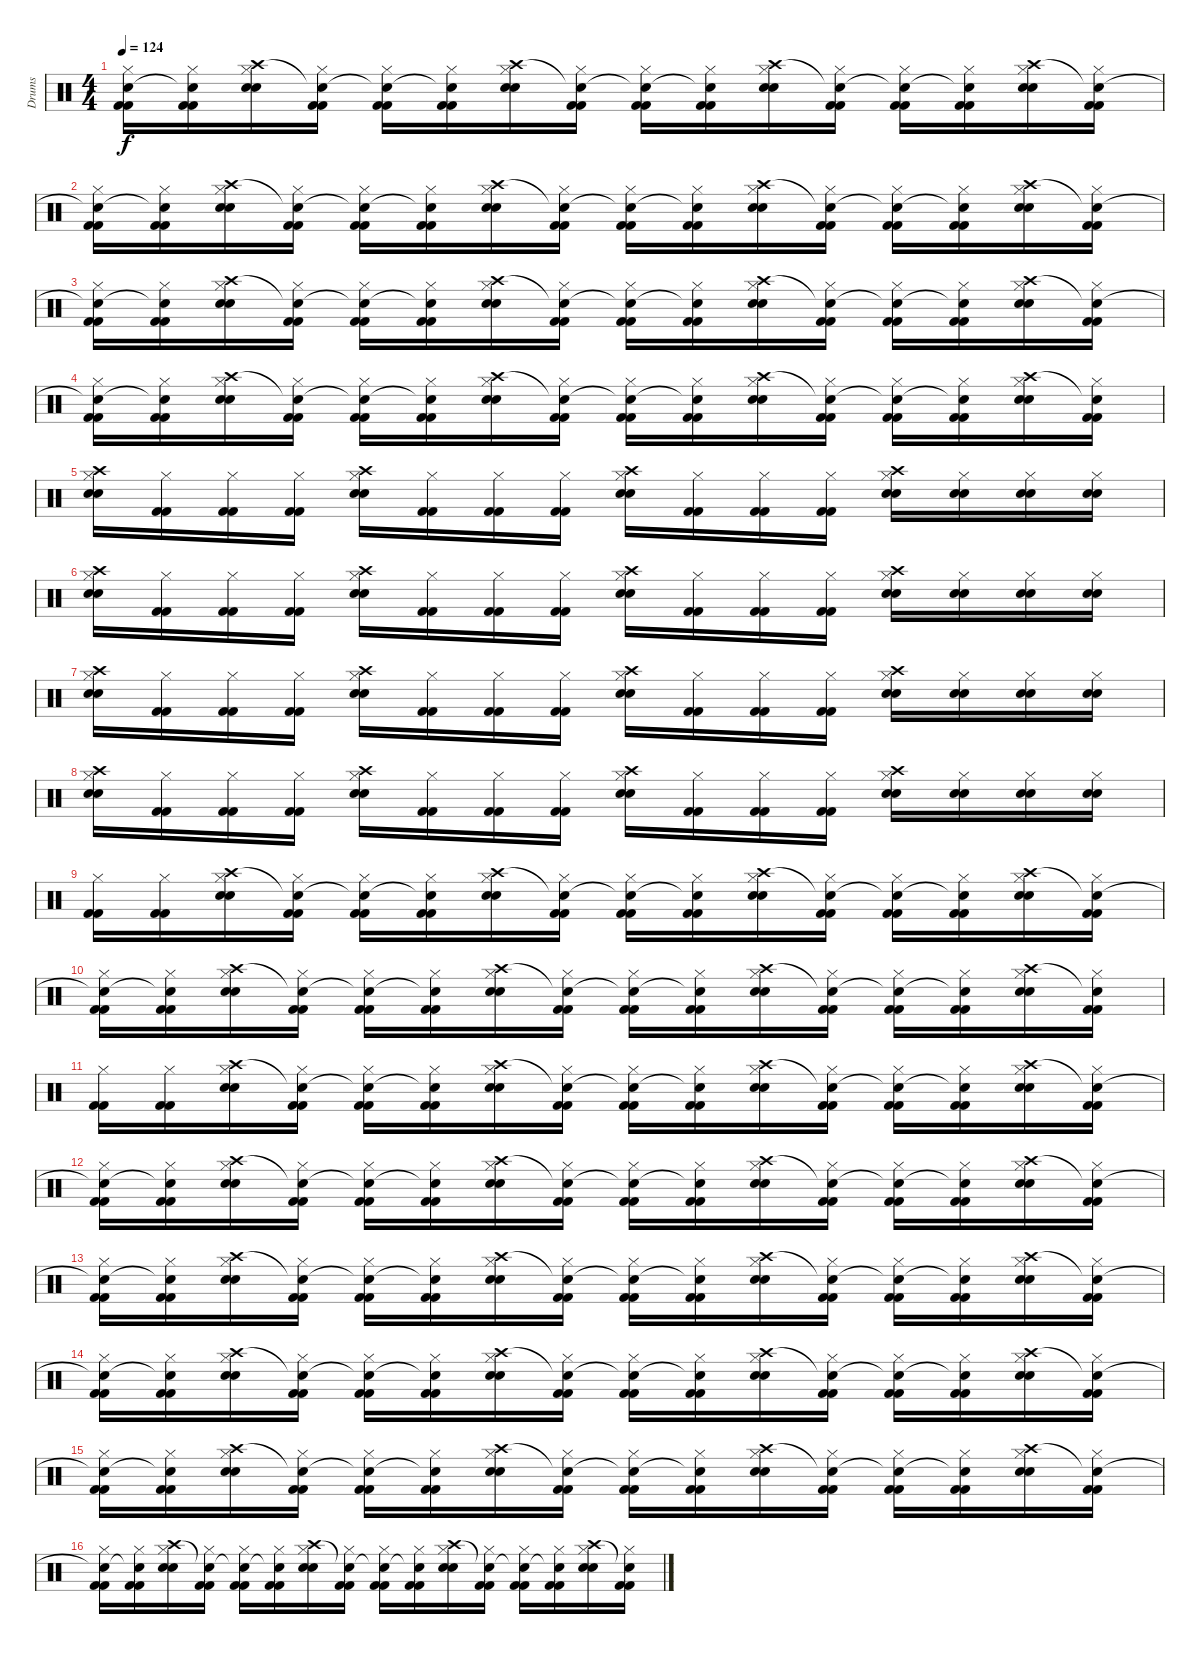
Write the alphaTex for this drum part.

\track ("Drums" "Drums") {instrument percussion}
\staff {score}
\articulation defaults
\ts (4 4)
\tempo 124
\clef neutral
\ks c
("Snare (hit)"{t} "Hi-Hat (closed)" "Kick (hit) 2" "Kick (hit) 2").16{dy f} ("Snare (hit)"{t} "Hi-Hat (closed)" "Kick (hit) 2" "Kick (hit) 2").16 ("Crash high (hit)" "Hi-Hat (closed)" "Snare (hit) 2" "Snare (hit) 2").16 ("Snare (hit)"{t} "Hi-Hat (closed)" "Kick (hit) 2" "Kick (hit) 2").16 ("Snare (hit)"{t} "Hi-Hat (closed)" "Kick (hit) 2" "Kick (hit) 2").16 ("Snare (hit)"{t} "Hi-Hat (closed)" "Kick (hit) 2" "Kick (hit) 2").16 ("Crash high (hit)" "Hi-Hat (closed)" "Snare (hit) 2" "Snare (hit) 2").16 ("Snare (hit)"{t} "Hi-Hat (closed)" "Kick (hit) 2" "Kick (hit) 2").16 ("Snare (hit)"{t} "Hi-Hat (closed)" "Kick (hit) 2" "Kick (hit) 2").16 ("Snare (hit)"{t} "Hi-Hat (closed)" "Kick (hit) 2" "Kick (hit) 2").16 ("Crash high (hit)" "Hi-Hat (closed)" "Snare (hit) 2" "Snare (hit) 2").16 ("Snare (hit)"{t} "Hi-Hat (closed)" "Kick (hit) 2" "Kick (hit) 2").16 ("Snare (hit)"{t} "Hi-Hat (closed)" "Kick (hit) 2" "Kick (hit) 2").16 ("Snare (hit)"{t} "Hi-Hat (closed)" "Kick (hit) 2" "Kick (hit) 2").16 ("Crash high (hit)" "Hi-Hat (closed)" "Snare (hit) 2" "Snare (hit) 2").16 ("Snare (hit)"{t} "Hi-Hat (closed)" "Kick (hit) 2" "Kick (hit) 2").16 |
("Snare (hit)"{t} "Hi-Hat (closed)" "Kick (hit) 2" "Kick (hit) 2").16 ("Snare (hit)"{t} "Hi-Hat (closed)" "Kick (hit) 2" "Kick (hit) 2").16 ("Crash high (hit)" "Hi-Hat (closed)" "Snare (hit) 2" "Snare (hit) 2").16 ("Snare (hit)"{t} "Hi-Hat (closed)" "Kick (hit) 2" "Kick (hit) 2").16 ("Snare (hit)"{t} "Hi-Hat (closed)" "Kick (hit) 2" "Kick (hit) 2").16 ("Snare (hit)"{t} "Hi-Hat (closed)" "Kick (hit) 2" "Kick (hit) 2").16 ("Crash high (hit)" "Hi-Hat (closed)" "Snare (hit) 2" "Snare (hit) 2").16 ("Snare (hit)"{t} "Hi-Hat (closed)" "Kick (hit) 2" "Kick (hit) 2").16 ("Snare (hit)"{t} "Hi-Hat (closed)" "Kick (hit) 2" "Kick (hit) 2").16 ("Snare (hit)"{t} "Hi-Hat (closed)" "Kick (hit) 2" "Kick (hit) 2").16 ("Crash high (hit)" "Hi-Hat (closed)" "Snare (hit) 2" "Snare (hit) 2").16 ("Snare (hit)"{t} "Hi-Hat (closed)" "Kick (hit) 2" "Kick (hit) 2").16 ("Snare (hit)"{t} "Hi-Hat (closed)" "Kick (hit) 2" "Kick (hit) 2").16 ("Snare (hit)"{t} "Hi-Hat (closed)" "Kick (hit) 2" "Kick (hit) 2").16 ("Crash high (hit)" "Hi-Hat (closed)" "Snare (hit) 2" "Snare (hit) 2").16 ("Snare (hit)"{t} "Hi-Hat (closed)" "Kick (hit) 2" "Kick (hit) 2").16 |
("Snare (hit)"{t} "Hi-Hat (closed)" "Kick (hit) 2" "Kick (hit) 2").16 ("Snare (hit)"{t} "Hi-Hat (closed)" "Kick (hit) 2" "Kick (hit) 2").16 ("Crash high (hit)" "Hi-Hat (closed)" "Snare (hit) 2" "Snare (hit) 2").16 ("Snare (hit)"{t} "Hi-Hat (closed)" "Kick (hit) 2" "Kick (hit) 2").16 ("Snare (hit)"{t} "Hi-Hat (closed)" "Kick (hit) 2" "Kick (hit) 2").16 ("Snare (hit)"{t} "Hi-Hat (closed)" "Kick (hit) 2" "Kick (hit) 2").16 ("Crash high (hit)" "Hi-Hat (closed)" "Snare (hit) 2" "Snare (hit) 2").16 ("Snare (hit)"{t} "Hi-Hat (closed)" "Kick (hit) 2" "Kick (hit) 2").16 ("Snare (hit)"{t} "Hi-Hat (closed)" "Kick (hit) 2" "Kick (hit) 2").16 ("Snare (hit)"{t} "Hi-Hat (closed)" "Kick (hit) 2" "Kick (hit) 2").16 ("Crash high (hit)" "Hi-Hat (closed)" "Snare (hit) 2" "Snare (hit) 2").16 ("Snare (hit)"{t} "Hi-Hat (closed)" "Kick (hit) 2" "Kick (hit) 2").16 ("Snare (hit)"{t} "Hi-Hat (closed)" "Kick (hit) 2" "Kick (hit) 2").16 ("Snare (hit)"{t} "Hi-Hat (closed)" "Kick (hit) 2" "Kick (hit) 2").16 ("Crash high (hit)" "Hi-Hat (closed)" "Snare (hit) 2" "Snare (hit) 2").16 ("Snare (hit)"{t} "Hi-Hat (closed)" "Kick (hit) 2" "Kick (hit) 2").16 |
("Snare (hit)"{t} "Hi-Hat (closed)" "Kick (hit) 2" "Kick (hit) 2").16 ("Snare (hit)"{t} "Hi-Hat (closed)" "Kick (hit) 2" "Kick (hit) 2").16 ("Crash high (hit)" "Hi-Hat (closed)" "Snare (hit) 2" "Snare (hit) 2").16 ("Snare (hit)"{t} "Hi-Hat (closed)" "Kick (hit) 2" "Kick (hit) 2").16 ("Snare (hit)"{t} "Hi-Hat (closed)" "Kick (hit) 2" "Kick (hit) 2").16 ("Snare (hit)"{t} "Hi-Hat (closed)" "Kick (hit) 2" "Kick (hit) 2").16 ("Crash high (hit)" "Hi-Hat (closed)" "Snare (hit) 2" "Snare (hit) 2").16 ("Snare (hit)"{t} "Hi-Hat (closed)" "Kick (hit) 2" "Kick (hit) 2").16 ("Snare (hit)"{t} "Hi-Hat (closed)" "Kick (hit) 2" "Kick (hit) 2").16 ("Snare (hit)"{t} "Hi-Hat (closed)" "Kick (hit) 2" "Kick (hit) 2").16 ("Crash high (hit)" "Hi-Hat (closed)" "Snare (hit) 2" "Snare (hit) 2").16 ("Snare (hit)"{t} "Hi-Hat (closed)" "Kick (hit) 2" "Kick (hit) 2").16 ("Snare (hit)"{t} "Hi-Hat (closed)" "Kick (hit) 2" "Kick (hit) 2").16 ("Snare (hit)"{t} "Hi-Hat (closed)" "Kick (hit) 2" "Kick (hit) 2").16 ("Crash high (hit)" "Hi-Hat (closed)" "Snare (hit) 2" "Snare (hit) 2").16 ("Snare (hit)"{t} "Hi-Hat (closed)" "Kick (hit) 2" "Kick (hit) 2").16 |
("Crash high (hit)" "Hi-Hat (closed)" "Snare (hit) 2" "Snare (hit) 2").16 ("Hi-Hat (closed)" "Kick (hit) 2" "Kick (hit) 2").16 ("Hi-Hat (closed)" "Kick (hit) 2" "Kick (hit) 2").16 ("Hi-Hat (closed)" "Kick (hit) 2" "Kick (hit) 2").16 ("Crash high (hit)" "Hi-Hat (closed)" "Snare (hit) 2" "Snare (hit) 2").16 ("Hi-Hat (closed)" "Kick (hit) 2" "Kick (hit) 2").16 ("Hi-Hat (closed)" "Kick (hit) 2" "Kick (hit) 2").16 ("Hi-Hat (closed)" "Kick (hit) 2" "Kick (hit) 2").16 ("Crash high (hit)" "Hi-Hat (closed)" "Snare (hit) 2" "Snare (hit) 2").16 ("Hi-Hat (closed)" "Kick (hit) 2" "Kick (hit) 2").16 ("Hi-Hat (closed)" "Kick (hit) 2" "Kick (hit) 2").16 ("Hi-Hat (closed)" "Kick (hit) 2" "Kick (hit) 2").16 ("Crash high (hit)" "Hi-Hat (closed)" "Snare (hit) 2" "Snare (hit) 2").16 ("Hi-Hat (closed)" "Snare (hit) 2" "Snare (hit) 2").16 ("Hi-Hat (closed)" "Snare (hit) 2" "Snare (hit) 2").16 ("Hi-Hat (closed)" "Snare (hit) 2" "Snare (hit) 2").16 |
("Crash high (hit)" "Hi-Hat (closed)" "Snare (hit) 2" "Snare (hit) 2").16 ("Hi-Hat (closed)" "Kick (hit) 2" "Kick (hit) 2").16 ("Hi-Hat (closed)" "Kick (hit) 2" "Kick (hit) 2").16 ("Hi-Hat (closed)" "Kick (hit) 2" "Kick (hit) 2").16 ("Crash high (hit)" "Hi-Hat (closed)" "Snare (hit) 2" "Snare (hit) 2").16 ("Hi-Hat (closed)" "Kick (hit) 2" "Kick (hit) 2").16 ("Hi-Hat (closed)" "Kick (hit) 2" "Kick (hit) 2").16 ("Hi-Hat (closed)" "Kick (hit) 2" "Kick (hit) 2").16 ("Crash high (hit)" "Hi-Hat (closed)" "Snare (hit) 2" "Snare (hit) 2").16 ("Hi-Hat (closed)" "Kick (hit) 2" "Kick (hit) 2").16 ("Hi-Hat (closed)" "Kick (hit) 2" "Kick (hit) 2").16 ("Hi-Hat (closed)" "Kick (hit) 2" "Kick (hit) 2").16 ("Crash high (hit)" "Hi-Hat (closed)" "Snare (hit) 2" "Snare (hit) 2").16 ("Hi-Hat (closed)" "Snare (hit) 2" "Snare (hit) 2").16 ("Hi-Hat (closed)" "Snare (hit) 2" "Snare (hit) 2").16 ("Hi-Hat (closed)" "Snare (hit) 2" "Snare (hit) 2").16 |
("Crash high (hit)" "Hi-Hat (closed)" "Snare (hit) 2" "Snare (hit) 2").16 ("Hi-Hat (closed)" "Kick (hit) 2" "Kick (hit) 2").16 ("Hi-Hat (closed)" "Kick (hit) 2" "Kick (hit) 2").16 ("Hi-Hat (closed)" "Kick (hit) 2" "Kick (hit) 2").16 ("Crash high (hit)" "Hi-Hat (closed)" "Snare (hit) 2" "Snare (hit) 2").16 ("Hi-Hat (closed)" "Kick (hit) 2" "Kick (hit) 2").16 ("Hi-Hat (closed)" "Kick (hit) 2" "Kick (hit) 2").16 ("Hi-Hat (closed)" "Kick (hit) 2" "Kick (hit) 2").16 ("Crash high (hit)" "Hi-Hat (closed)" "Snare (hit) 2" "Snare (hit) 2").16 ("Hi-Hat (closed)" "Kick (hit) 2" "Kick (hit) 2").16 ("Hi-Hat (closed)" "Kick (hit) 2" "Kick (hit) 2").16 ("Hi-Hat (closed)" "Kick (hit) 2" "Kick (hit) 2").16 ("Crash high (hit)" "Hi-Hat (closed)" "Snare (hit) 2" "Snare (hit) 2").16 ("Hi-Hat (closed)" "Snare (hit) 2" "Snare (hit) 2").16 ("Hi-Hat (closed)" "Snare (hit) 2" "Snare (hit) 2").16 ("Hi-Hat (closed)" "Snare (hit) 2" "Snare (hit) 2").16 |
("Crash high (hit)" "Hi-Hat (closed)" "Snare (hit) 2" "Snare (hit) 2").16 ("Hi-Hat (closed)" "Kick (hit) 2" "Kick (hit) 2").16 ("Hi-Hat (closed)" "Kick (hit) 2" "Kick (hit) 2").16 ("Hi-Hat (closed)" "Kick (hit) 2" "Kick (hit) 2").16 ("Crash high (hit)" "Hi-Hat (closed)" "Snare (hit) 2" "Snare (hit) 2").16 ("Hi-Hat (closed)" "Kick (hit) 2" "Kick (hit) 2").16 ("Hi-Hat (closed)" "Kick (hit) 2" "Kick (hit) 2").16 ("Hi-Hat (closed)" "Kick (hit) 2" "Kick (hit) 2").16 ("Crash high (hit)" "Hi-Hat (closed)" "Snare (hit) 2" "Snare (hit) 2").16 ("Hi-Hat (closed)" "Kick (hit) 2" "Kick (hit) 2").16 ("Hi-Hat (closed)" "Kick (hit) 2" "Kick (hit) 2").16 ("Hi-Hat (closed)" "Kick (hit) 2" "Kick (hit) 2").16 ("Crash high (hit)" "Hi-Hat (closed)" "Snare (hit) 2" "Snare (hit) 2").16 ("Hi-Hat (closed)" "Snare (hit) 2" "Snare (hit) 2").16 ("Hi-Hat (closed)" "Snare (hit) 2" "Snare (hit) 2").16 ("Hi-Hat (closed)" "Snare (hit) 2" "Snare (hit) 2").16 |
("Hi-Hat (closed)" "Kick (hit) 2" "Kick (hit) 2").16 ("Hi-Hat (closed)" "Kick (hit) 2" "Kick (hit) 2").16 ("Crash high (hit)" "Hi-Hat (closed)" "Snare (hit) 2" "Snare (hit) 2").16 ("Snare (hit)"{t} "Hi-Hat (closed)" "Kick (hit) 2" "Kick (hit) 2").16 ("Snare (hit)"{t} "Hi-Hat (closed)" "Kick (hit) 2" "Kick (hit) 2").16 ("Snare (hit)"{t} "Hi-Hat (closed)" "Kick (hit) 2" "Kick (hit) 2").16 ("Crash high (hit)" "Hi-Hat (closed)" "Snare (hit) 2" "Snare (hit) 2").16 ("Snare (hit)"{t} "Hi-Hat (closed)" "Kick (hit) 2" "Kick (hit) 2").16 ("Snare (hit)"{t} "Hi-Hat (closed)" "Kick (hit) 2" "Kick (hit) 2").16 ("Snare (hit)"{t} "Hi-Hat (closed)" "Kick (hit) 2" "Kick (hit) 2").16 ("Crash high (hit)" "Hi-Hat (closed)" "Snare (hit) 2" "Snare (hit) 2").16 ("Snare (hit)"{t} "Hi-Hat (closed)" "Kick (hit) 2" "Kick (hit) 2").16 ("Snare (hit)"{t} "Hi-Hat (closed)" "Kick (hit) 2" "Kick (hit) 2").16 ("Snare (hit)"{t} "Hi-Hat (closed)" "Kick (hit) 2" "Kick (hit) 2").16 ("Crash high (hit)" "Hi-Hat (closed)" "Snare (hit) 2" "Snare (hit) 2").16 ("Snare (hit)"{t} "Hi-Hat (closed)" "Kick (hit) 2" "Kick (hit) 2").16 |
("Snare (hit)"{t} "Hi-Hat (closed)" "Kick (hit) 2" "Kick (hit) 2").16 ("Snare (hit)"{t} "Hi-Hat (closed)" "Kick (hit) 2" "Kick (hit) 2").16 ("Crash high (hit)" "Hi-Hat (closed)" "Snare (hit) 2" "Snare (hit) 2").16 ("Snare (hit)"{t} "Hi-Hat (closed)" "Kick (hit) 2" "Kick (hit) 2").16 ("Snare (hit)"{t} "Hi-Hat (closed)" "Kick (hit) 2" "Kick (hit) 2").16 ("Snare (hit)"{t} "Hi-Hat (closed)" "Kick (hit) 2" "Kick (hit) 2").16 ("Crash high (hit)" "Hi-Hat (closed)" "Snare (hit) 2" "Snare (hit) 2").16 ("Snare (hit)"{t} "Hi-Hat (closed)" "Kick (hit) 2" "Kick (hit) 2").16 ("Snare (hit)"{t} "Hi-Hat (closed)" "Kick (hit) 2" "Kick (hit) 2").16 ("Snare (hit)"{t} "Hi-Hat (closed)" "Kick (hit) 2" "Kick (hit) 2").16 ("Crash high (hit)" "Hi-Hat (closed)" "Snare (hit) 2" "Snare (hit) 2").16 ("Snare (hit)"{t} "Hi-Hat (closed)" "Kick (hit) 2" "Kick (hit) 2").16 ("Snare (hit)"{t} "Hi-Hat (closed)" "Kick (hit) 2" "Kick (hit) 2").16 ("Snare (hit)"{t} "Hi-Hat (closed)" "Kick (hit) 2" "Kick (hit) 2").16 ("Crash high (hit)" "Hi-Hat (closed)" "Snare (hit) 2" "Snare (hit) 2").16 ("Snare (hit)"{t} "Hi-Hat (closed)" "Kick (hit) 2" "Kick (hit) 2").16 |
("Hi-Hat (closed)" "Kick (hit) 2" "Kick (hit) 2").16 ("Hi-Hat (closed)" "Kick (hit) 2" "Kick (hit) 2").16 ("Crash high (hit)" "Hi-Hat (closed)" "Snare (hit) 2" "Snare (hit) 2").16 ("Snare (hit)"{t} "Hi-Hat (closed)" "Kick (hit) 2" "Kick (hit) 2").16 ("Snare (hit)"{t} "Hi-Hat (closed)" "Kick (hit) 2" "Kick (hit) 2").16 ("Snare (hit)"{t} "Hi-Hat (closed)" "Kick (hit) 2" "Kick (hit) 2").16 ("Crash high (hit)" "Hi-Hat (closed)" "Snare (hit) 2" "Snare (hit) 2").16 ("Snare (hit)"{t} "Hi-Hat (closed)" "Kick (hit) 2" "Kick (hit) 2").16 ("Snare (hit)"{t} "Hi-Hat (closed)" "Kick (hit) 2" "Kick (hit) 2").16 ("Snare (hit)"{t} "Hi-Hat (closed)" "Kick (hit) 2" "Kick (hit) 2").16 ("Crash high (hit)" "Hi-Hat (closed)" "Snare (hit) 2" "Snare (hit) 2").16 ("Snare (hit)"{t} "Hi-Hat (closed)" "Kick (hit) 2" "Kick (hit) 2").16 ("Snare (hit)"{t} "Hi-Hat (closed)" "Kick (hit) 2" "Kick (hit) 2").16 ("Snare (hit)"{t} "Hi-Hat (closed)" "Kick (hit) 2" "Kick (hit) 2").16 ("Crash high (hit)" "Hi-Hat (closed)" "Snare (hit) 2" "Snare (hit) 2").16 ("Snare (hit)"{t} "Hi-Hat (closed)" "Kick (hit) 2" "Kick (hit) 2").16 |
("Snare (hit)"{t} "Hi-Hat (closed)" "Kick (hit) 2" "Kick (hit) 2").16 ("Snare (hit)"{t} "Hi-Hat (closed)" "Kick (hit) 2" "Kick (hit) 2").16 ("Crash high (hit)" "Hi-Hat (closed)" "Snare (hit) 2" "Snare (hit) 2").16 ("Snare (hit)"{t} "Hi-Hat (closed)" "Kick (hit) 2" "Kick (hit) 2").16 ("Snare (hit)"{t} "Hi-Hat (closed)" "Kick (hit) 2" "Kick (hit) 2").16 ("Snare (hit)"{t} "Hi-Hat (closed)" "Kick (hit) 2" "Kick (hit) 2").16 ("Crash high (hit)" "Hi-Hat (closed)" "Snare (hit) 2" "Snare (hit) 2").16 ("Snare (hit)"{t} "Hi-Hat (closed)" "Kick (hit) 2" "Kick (hit) 2").16 ("Snare (hit)"{t} "Hi-Hat (closed)" "Kick (hit) 2" "Kick (hit) 2").16 ("Snare (hit)"{t} "Hi-Hat (closed)" "Kick (hit) 2" "Kick (hit) 2").16 ("Crash high (hit)" "Hi-Hat (closed)" "Snare (hit) 2" "Snare (hit) 2").16 ("Snare (hit)"{t} "Hi-Hat (closed)" "Kick (hit) 2" "Kick (hit) 2").16 ("Snare (hit)"{t} "Hi-Hat (closed)" "Kick (hit) 2" "Kick (hit) 2").16 ("Snare (hit)"{t} "Hi-Hat (closed)" "Kick (hit) 2" "Kick (hit) 2").16 ("Crash high (hit)" "Hi-Hat (closed)" "Snare (hit) 2" "Snare (hit) 2").16 ("Snare (hit)"{t} "Hi-Hat (closed)" "Kick (hit) 2" "Kick (hit) 2").16 |
("Snare (hit)"{t} "Hi-Hat (closed)" "Kick (hit) 2" "Kick (hit) 2").16 ("Snare (hit)"{t} "Hi-Hat (closed)" "Kick (hit) 2" "Kick (hit) 2").16 ("Crash high (hit)" "Hi-Hat (closed)" "Snare (hit) 2" "Snare (hit) 2").16 ("Snare (hit)"{t} "Hi-Hat (closed)" "Kick (hit) 2" "Kick (hit) 2").16 ("Snare (hit)"{t} "Hi-Hat (closed)" "Kick (hit) 2" "Kick (hit) 2").16 ("Snare (hit)"{t} "Hi-Hat (closed)" "Kick (hit) 2" "Kick (hit) 2").16 ("Crash high (hit)" "Hi-Hat (closed)" "Snare (hit) 2" "Snare (hit) 2").16 ("Snare (hit)"{t} "Hi-Hat (closed)" "Kick (hit) 2" "Kick (hit) 2").16 ("Snare (hit)"{t} "Hi-Hat (closed)" "Kick (hit) 2" "Kick (hit) 2").16 ("Snare (hit)"{t} "Hi-Hat (closed)" "Kick (hit) 2" "Kick (hit) 2").16 ("Crash high (hit)" "Hi-Hat (closed)" "Snare (hit) 2" "Snare (hit) 2").16 ("Snare (hit)"{t} "Hi-Hat (closed)" "Kick (hit) 2" "Kick (hit) 2").16 ("Snare (hit)"{t} "Hi-Hat (closed)" "Kick (hit) 2" "Kick (hit) 2").16 ("Snare (hit)"{t} "Hi-Hat (closed)" "Kick (hit) 2" "Kick (hit) 2").16 ("Crash high (hit)" "Hi-Hat (closed)" "Snare (hit) 2" "Snare (hit) 2").16 ("Snare (hit)"{t} "Hi-Hat (closed)" "Kick (hit) 2" "Kick (hit) 2").16 |
("Snare (hit)"{t} "Hi-Hat (closed)" "Kick (hit) 2" "Kick (hit) 2").16 ("Snare (hit)"{t} "Hi-Hat (closed)" "Kick (hit) 2" "Kick (hit) 2").16 ("Crash high (hit)" "Hi-Hat (closed)" "Snare (hit) 2" "Snare (hit) 2").16 ("Snare (hit)"{t} "Hi-Hat (closed)" "Kick (hit) 2" "Kick (hit) 2").16 ("Snare (hit)"{t} "Hi-Hat (closed)" "Kick (hit) 2" "Kick (hit) 2").16 ("Snare (hit)"{t} "Hi-Hat (closed)" "Kick (hit) 2" "Kick (hit) 2").16 ("Crash high (hit)" "Hi-Hat (closed)" "Snare (hit) 2" "Snare (hit) 2").16 ("Snare (hit)"{t} "Hi-Hat (closed)" "Kick (hit) 2" "Kick (hit) 2").16 ("Snare (hit)"{t} "Hi-Hat (closed)" "Kick (hit) 2" "Kick (hit) 2").16 ("Snare (hit)"{t} "Hi-Hat (closed)" "Kick (hit) 2" "Kick (hit) 2").16 ("Crash high (hit)" "Hi-Hat (closed)" "Snare (hit) 2" "Snare (hit) 2").16 ("Snare (hit)"{t} "Hi-Hat (closed)" "Kick (hit) 2" "Kick (hit) 2").16 ("Snare (hit)"{t} "Hi-Hat (closed)" "Kick (hit) 2" "Kick (hit) 2").16 ("Snare (hit)"{t} "Hi-Hat (closed)" "Kick (hit) 2" "Kick (hit) 2").16 ("Crash high (hit)" "Hi-Hat (closed)" "Snare (hit) 2" "Snare (hit) 2").16 ("Snare (hit)"{t} "Hi-Hat (closed)" "Kick (hit) 2" "Kick (hit) 2").16 |
("Snare (hit)"{t} "Hi-Hat (closed)" "Kick (hit) 2" "Kick (hit) 2").16 ("Snare (hit)"{t} "Hi-Hat (closed)" "Kick (hit) 2" "Kick (hit) 2").16 ("Crash high (hit)" "Hi-Hat (closed)" "Snare (hit) 2" "Snare (hit) 2").16 ("Snare (hit)"{t} "Hi-Hat (closed)" "Kick (hit) 2" "Kick (hit) 2").16 ("Snare (hit)"{t} "Hi-Hat (closed)" "Kick (hit) 2" "Kick (hit) 2").16 ("Snare (hit)"{t} "Hi-Hat (closed)" "Kick (hit) 2" "Kick (hit) 2").16 ("Crash high (hit)" "Hi-Hat (closed)" "Snare (hit) 2" "Snare (hit) 2").16 ("Snare (hit)"{t} "Hi-Hat (closed)" "Kick (hit) 2" "Kick (hit) 2").16 ("Snare (hit)"{t} "Hi-Hat (closed)" "Kick (hit) 2" "Kick (hit) 2").16 ("Snare (hit)"{t} "Hi-Hat (closed)" "Kick (hit) 2" "Kick (hit) 2").16 ("Crash high (hit)" "Hi-Hat (closed)" "Snare (hit) 2" "Snare (hit) 2").16 ("Snare (hit)"{t} "Hi-Hat (closed)" "Kick (hit) 2" "Kick (hit) 2").16 ("Snare (hit)"{t} "Hi-Hat (closed)" "Kick (hit) 2" "Kick (hit) 2").16 ("Snare (hit)"{t} "Hi-Hat (closed)" "Kick (hit) 2" "Kick (hit) 2").16 ("Crash high (hit)" "Hi-Hat (closed)" "Snare (hit) 2" "Snare (hit) 2").16 ("Snare (hit)"{t} "Hi-Hat (closed)" "Kick (hit) 2" "Kick (hit) 2").16 |
("Snare (hit)"{t} "Hi-Hat (closed)" "Kick (hit) 2" "Kick (hit) 2").16 ("Snare (hit)"{t} "Hi-Hat (closed)" "Kick (hit) 2" "Kick (hit) 2").16 ("Crash high (hit)" "Hi-Hat (closed)" "Snare (hit) 2" "Snare (hit) 2").16 ("Snare (hit)"{t} "Hi-Hat (closed)" "Kick (hit) 2" "Kick (hit) 2").16 ("Snare (hit)"{t} "Hi-Hat (closed)" "Kick (hit) 2" "Kick (hit) 2").16 ("Snare (hit)"{t} "Hi-Hat (closed)" "Kick (hit) 2" "Kick (hit) 2").16 ("Crash high (hit)" "Hi-Hat (closed)" "Snare (hit) 2" "Snare (hit) 2").16 ("Snare (hit)"{t} "Hi-Hat (closed)" "Kick (hit) 2" "Kick (hit) 2").16 ("Snare (hit)"{t} "Hi-Hat (closed)" "Kick (hit) 2" "Kick (hit) 2").16 ("Snare (hit)"{t} "Hi-Hat (closed)" "Kick (hit) 2" "Kick (hit) 2").16 ("Crash high (hit)" "Hi-Hat (closed)" "Snare (hit) 2" "Snare (hit) 2").16 ("Snare (hit)"{t} "Hi-Hat (closed)" "Kick (hit) 2" "Kick (hit) 2").16 ("Snare (hit)"{t} "Hi-Hat (closed)" "Kick (hit) 2" "Kick (hit) 2").16 ("Snare (hit)"{t} "Hi-Hat (closed)" "Kick (hit) 2" "Kick (hit) 2").16 ("Crash high (hit)" "Hi-Hat (closed)" "Snare (hit) 2" "Snare (hit) 2").16 ("Snare (hit)"{t} "Hi-Hat (closed)" "Kick (hit) 2" "Kick (hit) 2").16
